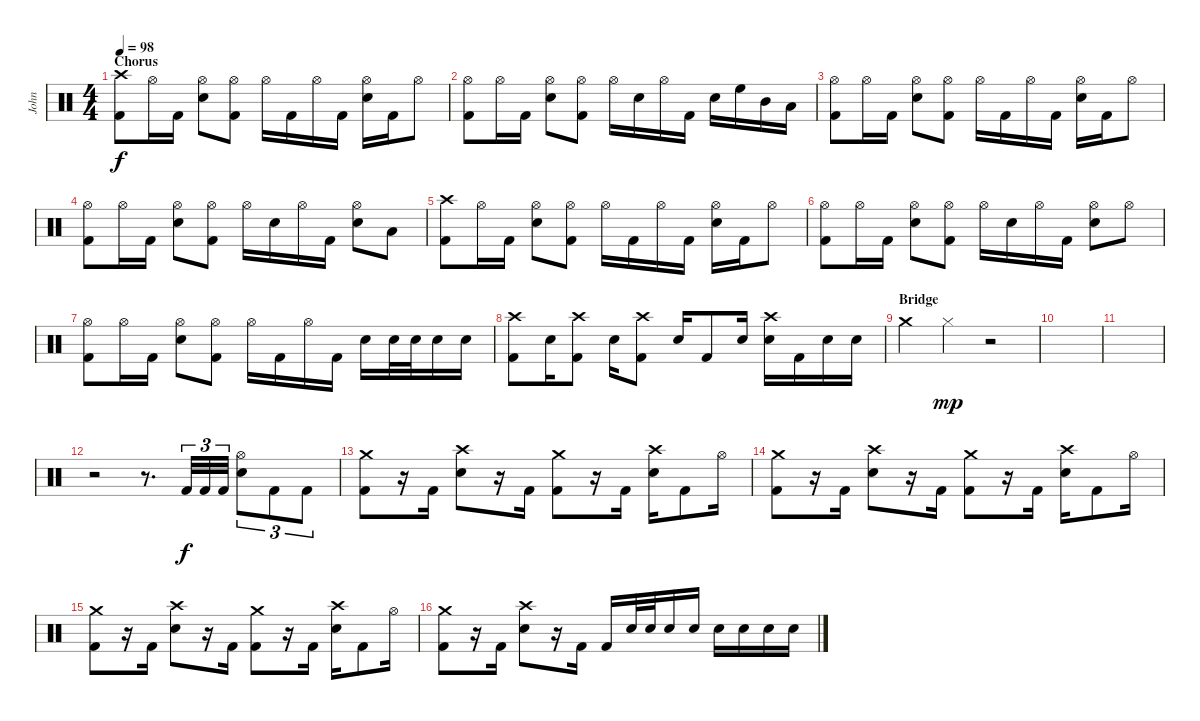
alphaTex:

\track ("John" "John") {instrument percussion}
\staff {score}
\articulation defaults
\ts (4 4)
\section ("" "Chorus")
\tempo 98
\clef neutral
\ks c
("Crash high (hit)" "Kick (hit) 2").8{dy f} "Hi-Hat (open)".16 "Kick (hit) 2".16 ("Hi-Hat (open)" "Snare (hit) 2").8 ("Hi-Hat (open)" "Kick (hit) 2").8 "Hi-Hat (open)".16 "Kick (hit) 2".16 "Hi-Hat (open)".16 "Kick (hit) 2".16 ("Hi-Hat (open)" "Snare (hit) 2").16 "Kick (hit) 2".16 "Hi-Hat (open)".8 |
("Hi-Hat (open)" "Kick (hit) 2").8 "Hi-Hat (open)".16 "Kick (hit) 2".16 ("Hi-Hat (open)" "Snare (hit) 2").8 ("Hi-Hat (open)" "Kick (hit) 2").8 "Hi-Hat (open)".16 "Snare (hit) 2".16 "Hi-Hat (open)".16 "Kick (hit) 2".16 "Snare (hit) 2".16 "High Floor Tom (hit)".16 "Mid Tom (hit)".16 "Low Floor Tom (hit)".16 |
("Hi-Hat (open)" "Kick (hit) 2").8 "Hi-Hat (open)".16 "Kick (hit) 2".16 ("Hi-Hat (open)" "Snare (hit) 2").8 ("Hi-Hat (open)" "Kick (hit) 2").8 "Hi-Hat (open)".16 "Kick (hit) 2".16 "Hi-Hat (open)".16 "Kick (hit) 2".16 ("Hi-Hat (open)" "Snare (hit) 2").16 "Kick (hit) 2".16 "Hi-Hat (open)".8 |
("Hi-Hat (open)" "Kick (hit) 2").8 "Hi-Hat (open)".16 "Kick (hit) 2".16 ("Hi-Hat (open)" "Snare (hit) 2").8 ("Hi-Hat (open)" "Kick (hit) 2").8 "Hi-Hat (open)".16 "Snare (hit) 2".16 "Hi-Hat (open)".16 "Kick (hit) 2".16 ("Hi-Hat (open)" "Snare (hit) 2").8 "Low Floor Tom (hit)".8 |
("Crash high (hit)" "Kick (hit) 2").8 "Hi-Hat (open)".16 "Kick (hit) 2".16 ("Hi-Hat (open)" "Snare (hit) 2").8 ("Hi-Hat (open)" "Kick (hit) 2").8 "Hi-Hat (open)".16 "Kick (hit) 2".16 "Hi-Hat (open)".16 "Kick (hit) 2".16 ("Hi-Hat (open)" "Snare (hit) 2").16 "Kick (hit) 2".16 "Hi-Hat (open)".8 |
("Hi-Hat (open)" "Kick (hit) 2").8 "Hi-Hat (open)".16 "Kick (hit) 2".16 ("Hi-Hat (open)" "Snare (hit) 2").8 ("Hi-Hat (open)" "Kick (hit) 2").8 "Hi-Hat (open)".16 "Snare (hit) 2".16 "Hi-Hat (open)".16 "Kick (hit) 2".16 ("Hi-Hat (open)" "Snare (hit) 2").8 "Hi-Hat (open)".8 |
("Hi-Hat (open)" "Kick (hit) 2").8 "Hi-Hat (open)".16 "Kick (hit) 2".16 ("Hi-Hat (open)" "Snare (hit) 2").8 ("Hi-Hat (open)" "Kick (hit) 2").8 "Hi-Hat (open)".16 "Kick (hit) 2".16 "Hi-Hat (open)".16 "Kick (hit) 2".16 "Snare (hit) 2".16 "Snare (hit) 2".32 "Snare (hit) 2".32 "Snare (hit) 2".16 "Snare (hit) 2".16 |
("Crash high (hit)" "Kick (hit) 2").8 "Snare (hit) 2".16 ("Crash high (hit)" "Kick (hit) 2").8 "Snare (hit) 2".16 ("Crash high (hit)" "Kick (hit) 2").8 "Snare (hit) 2".16 "Kick (hit) 2".8 "Snare (hit) 2".16 ("Crash high (hit)" "Snare (hit) 2").16 "Kick (hit) 2".16 "Snare (hit) 2".16 "Snare (hit) 2".16 |
\section ("" "Bridge")
"Crash medium (hit)".4 "Hi-Hat (closed)".4{dy mp} r.2 |
|
|
r.2 r.8{d} "Kick (hit) 2".32{tu (3 2) dy f} "Kick (hit) 2".32{tu (3 2)} "Kick (hit) 2".32{tu (3 2)} ("Hi-Hat (open)" "Snare (hit) 2").8{tu (3 2)} "Kick (hit) 2".8{tu (3 2)} "Kick (hit) 2".8{tu (3 2)} |
("Crash medium (hit)" "Kick (hit) 2").8 r.16 "Kick (hit) 2".16 ("Crash high (hit)" "Snare (hit) 2").8 r.16 "Kick (hit) 2".16 ("Crash medium (hit)" "Kick (hit) 2").8 r.16 "Kick (hit) 2".16 ("Crash high (hit)" "Snare (hit) 2").16 "Kick (hit) 2".8 "Hi-Hat (open)".16 |
("Crash medium (hit)" "Kick (hit) 2").8 r.16 "Kick (hit) 2".16 ("Crash high (hit)" "Snare (hit) 2").8 r.16 "Kick (hit) 2".16 ("Crash medium (hit)" "Kick (hit) 2").8 r.16 "Kick (hit) 2".16 ("Crash high (hit)" "Snare (hit) 2").16 "Kick (hit) 2".8 "Hi-Hat (open)".16 |
("Crash medium (hit)" "Kick (hit) 2").8 r.16 "Kick (hit) 2".16 ("Crash high (hit)" "Snare (hit) 2").8 r.16 "Kick (hit) 2".16 ("Crash medium (hit)" "Kick (hit) 2").8 r.16 "Kick (hit) 2".16 ("Crash high (hit)" "Snare (hit) 2").16 "Kick (hit) 2".8 "Hi-Hat (open)".16 |
("Crash medium (hit)" "Kick (hit) 2").8 r.16 "Kick (hit) 2".16 ("Crash high (hit)" "Snare (hit) 2").8 r.16 "Kick (hit) 2".16 "Kick (hit) 2".16 "Snare (hit) 2".32 "Snare (hit) 2".32 "Snare (hit) 2".16 "Snare (hit) 2".16 "Snare (hit) 2".16 "Snare (hit) 2".16 "Snare (hit) 2".16 "Snare (hit) 2".16
